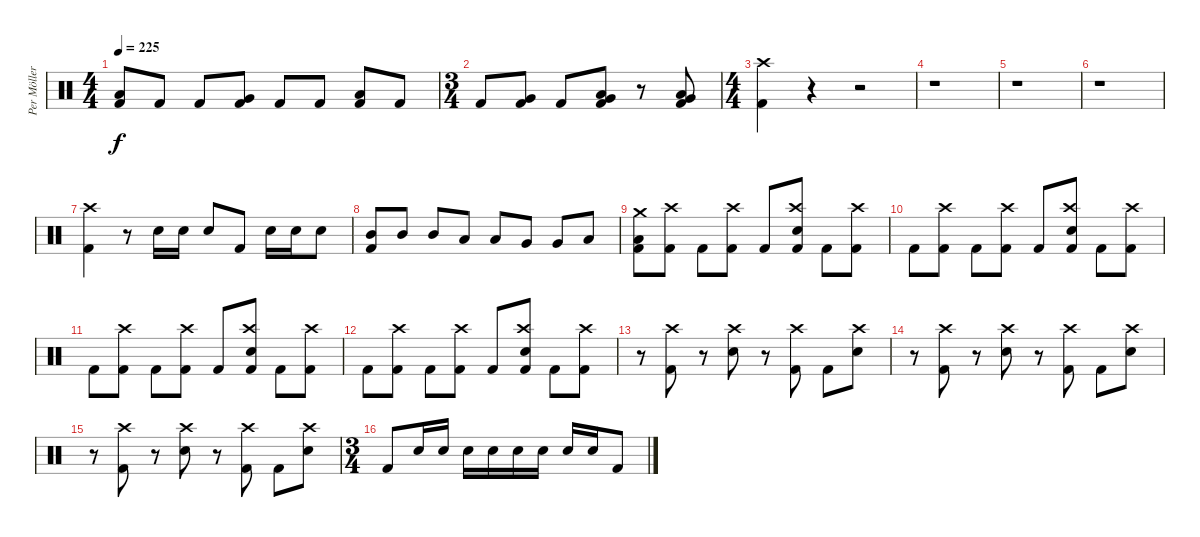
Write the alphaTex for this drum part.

\track ("Per Möller Jensen" "Per Möller") {instrument percussion}
\staff {score}
\articulation defaults
\ts (4 4)
\tempo 225
\clef neutral
\ks c
("Low Tom (hit)" "Kick (hit) 2").8{dy f} "Kick (hit) 2".8 "Kick (hit) 2".8 ("Very Low Tom (hit)" "Kick (hit) 2").8 "Kick (hit) 2".8 "Kick (hit) 2".8 ("Low Floor Tom (hit)" "Kick (hit) 2").8 "Kick (hit) 2".8 |
\ts (3 4)
"Kick (hit) 2".8 ("Very Low Tom (hit)" "Kick (hit) 2").8 "Kick (hit) 2".8 ("Low Floor Tom (hit)" "Very Low Tom (hit)" "Kick (hit) 2").8 r.8 ("Low Floor Tom (hit)" "Very Low Tom (hit)" "Kick (hit) 2").8 |
\ts (4 4)
("Crash high (hit)" "Kick (hit) 2").4 r.4 r.2 |
r.1 |
r.1 |
r.1 |
("Crash high (hit)" "Kick (hit) 2").4 r.8 "Snare (hit) 2".16 "Snare (hit) 2".16 "Snare (hit) 2".8 "Kick (hit) 2".8 "Snare (hit) 2".16 "Snare (hit) 2".16 "Snare (hit) 2".8 |
("Mid Tom (hit)" "Kick (hit) 2").8 "Mid Tom (hit)".8 "Mid Tom (hit)".8 "Low Tom (hit)".8 "Low Tom (hit)".8 "Very Low Tom (hit)".8 "Very Low Tom (hit)".8 "Low Floor Tom (hit)".8 |
("Crash medium (hit)" "Low Floor Tom (hit)" "Kick (hit) 2").8 ("Crash high (hit)" "Kick (hit) 2").8 "Kick (hit) 2".8 ("Crash high (hit)" "Kick (hit) 2").8 "Kick (hit) 2".8 ("Crash high (hit)" "Snare (hit) 2" "Kick (hit) 2").8 "Kick (hit) 2".8 ("Crash high (hit)" "Kick (hit) 2").8 |
"Kick (hit) 2".8 ("Crash high (hit)" "Kick (hit) 2").8 "Kick (hit) 2".8 ("Crash high (hit)" "Kick (hit) 2").8 "Kick (hit) 2".8 ("Crash high (hit)" "Snare (hit) 2" "Kick (hit) 2").8 "Kick (hit) 2".8 ("Crash high (hit)" "Kick (hit) 2").8 |
"Kick (hit) 2".8 ("Crash high (hit)" "Kick (hit) 2").8 "Kick (hit) 2".8 ("Crash high (hit)" "Kick (hit) 2").8 "Kick (hit) 2".8 ("Crash high (hit)" "Snare (hit) 2" "Kick (hit) 2").8 "Kick (hit) 2".8 ("Crash high (hit)" "Kick (hit) 2").8 |
"Kick (hit) 2".8 ("Crash high (hit)" "Kick (hit) 2").8 "Kick (hit) 2".8 ("Crash high (hit)" "Kick (hit) 2").8 "Kick (hit) 2".8 ("Crash high (hit)" "Snare (hit) 2" "Kick (hit) 2").8 "Kick (hit) 2".8 ("Crash high (hit)" "Kick (hit) 2").8 |
r.8 ("Crash high (hit)" "Kick (hit) 2").8 r.8 ("Crash high (hit)" "Snare (hit) 2").8 r.8 ("Crash high (hit)" "Kick (hit) 2").8 "Kick (hit) 2".8 ("Crash high (hit)" "Snare (hit) 2").8 |
r.8 ("Crash high (hit)" "Kick (hit) 2").8 r.8 ("Crash high (hit)" "Snare (hit) 2").8 r.8 ("Crash high (hit)" "Kick (hit) 2").8 "Kick (hit) 2".8 ("Crash high (hit)" "Snare (hit) 2").8 |
r.8 ("Crash high (hit)" "Kick (hit) 2").8 r.8 ("Crash high (hit)" "Snare (hit) 2").8 r.8 ("Crash high (hit)" "Kick (hit) 2").8 "Kick (hit) 2".8 ("Crash high (hit)" "Snare (hit) 2").8 |
\ts (3 4)
"Kick (hit) 2".8 "Snare (hit) 2".16 "Snare (hit) 2".16 "Snare (hit) 2".16 "Snare (hit) 2".16 "Snare (hit) 2".16 "Snare (hit) 2".16 "Snare (hit) 2".16 "Snare (hit) 2".16 "Kick (hit) 2".8
